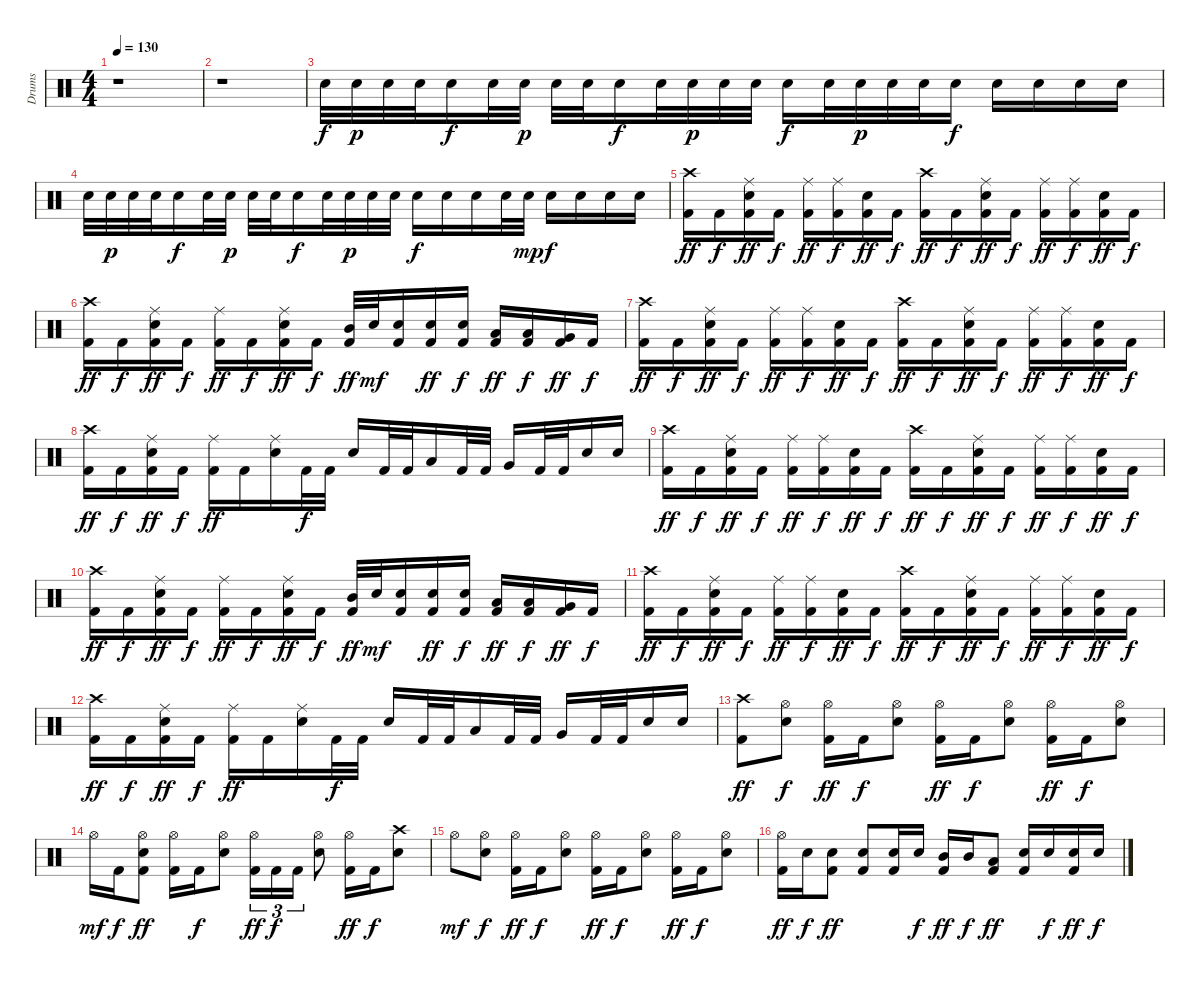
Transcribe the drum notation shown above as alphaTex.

\track ("Drums" "Drums") {instrument percussion}
\staff {score}
\articulation defaults
\ts (4 4)
\tempo 130
\clef neutral
\ks c
r.1{dy f} |
r.1 |
"Electric Snare (hit)".32 "Electric Snare (hit)".32{dy p} "Electric Snare (hit)".32 "Electric Snare (hit)".32 "Electric Snare (hit)".16{dy f} "Electric Snare (hit)".32 "Electric Snare (hit)".32{dy p} "Electric Snare (hit)".32 "Electric Snare (hit)".32 "Electric Snare (hit)".16{dy f} "Electric Snare (hit)".32 "Electric Snare (hit)".32{dy p} "Electric Snare (hit)".32 "Electric Snare (hit)".32 "Electric Snare (hit)".16{dy f} "Electric Snare (hit)".32 "Electric Snare (hit)".32{dy p} "Electric Snare (hit)".32 "Electric Snare (hit)".32 "Electric Snare (hit)".16{dy f} "Electric Snare (hit)".16 "Electric Snare (hit)".16 "Electric Snare (hit)".16 "Electric Snare (hit)".16 |
"Electric Snare (hit)".32 "Electric Snare (hit)".32{dy p} "Electric Snare (hit)".32 "Electric Snare (hit)".32 "Electric Snare (hit)".16{dy f} "Electric Snare (hit)".32 "Electric Snare (hit)".32{dy p} "Electric Snare (hit)".32 "Electric Snare (hit)".32 "Electric Snare (hit)".16{dy f} "Electric Snare (hit)".32 "Electric Snare (hit)".32{dy p} "Electric Snare (hit)".32 "Electric Snare (hit)".32 "Electric Snare (hit)".16{dy f} "Electric Snare (hit)".16 "Electric Snare (hit)".16 "Electric Snare (hit)".32 "Electric Snare (hit)".32{dy mp} "Electric Snare (hit)".16{dy f} "Electric Snare (hit)".16 "Electric Snare (hit)".16 "Electric Snare (hit)".16 |
("Crash high (hit)" "Kick (hit) 2").16{dy ff} "Kick (hit) 2".16{dy f} ("Ride (middle)" "Electric Snare (hit)" "Kick (hit) 2").16{dy ff} "Kick (hit) 2".16{dy f} ("Ride (middle)" "Kick (hit) 2").16{dy ff} ("Ride (middle)" "Kick (hit) 2").16{dy f} ("Electric Snare (hit)" "Kick (hit) 2").16{dy ff} "Kick (hit) 2".16{dy f} ("Crash high (hit)" "Kick (hit) 2").16{dy ff} "Kick (hit) 2".16{dy f} ("Ride (middle)" "Electric Snare (hit)" "Kick (hit) 2").16{dy ff} "Kick (hit) 2".16{dy f} ("Ride (middle)" "Kick (hit) 2").16{dy ff} ("Ride (middle)" "Kick (hit) 2").16{dy f} ("Electric Snare (hit)" "Kick (hit) 2").16{dy ff} "Kick (hit) 2".16{dy f} |
("Crash high (hit)" "Kick (hit) 2").16{dy ff} "Kick (hit) 2".16{dy f} ("Ride (middle)" "Electric Snare (hit)" "Kick (hit) 2").16{dy ff} "Kick (hit) 2".16{dy f} ("Ride (middle)" "Kick (hit) 2").16{dy ff} "Kick (hit) 2".16{dy f} ("Ride (middle)" "Electric Snare (hit)" "Kick (hit) 2").16{dy ff} "Kick (hit) 2".16{dy f} ("Mid Tom (hit)" "Kick (hit) 2").32{dy ff} "Electric Snare (hit)".32{dy mf} ("Electric Snare (hit)" "Kick (hit) 2").16 ("Electric Snare (hit)" "Kick (hit) 2").16{dy ff} ("Electric Snare (hit)" "Kick (hit) 2").16{dy f} ("Low Tom (hit)" "Kick (hit) 2").16{dy ff} ("Low Tom (hit)" "Kick (hit) 2").16{dy f} ("Very Low Tom (hit)" "Kick (hit) 2").16{dy ff} "Kick (hit) 2".16{dy f} |
("Crash high (hit)" "Kick (hit) 2").16{dy ff} "Kick (hit) 2".16{dy f} ("Ride (middle)" "Electric Snare (hit)" "Kick (hit) 2").16{dy ff} "Kick (hit) 2".16{dy f} ("Ride (middle)" "Kick (hit) 2").16{dy ff} ("Ride (middle)" "Kick (hit) 2").16{dy f} ("Electric Snare (hit)" "Kick (hit) 2").16{dy ff} "Kick (hit) 2".16{dy f} ("Crash high (hit)" "Kick (hit) 2").16{dy ff} "Kick (hit) 2".16{dy f} ("Ride (middle)" "Electric Snare (hit)" "Kick (hit) 2").16{dy ff} "Kick (hit) 2".16{dy f} ("Ride (middle)" "Kick (hit) 2").16{dy ff} ("Ride (middle)" "Kick (hit) 2").16{dy f} ("Electric Snare (hit)" "Kick (hit) 2").16{dy ff} "Kick (hit) 2".16{dy f} |
("Crash high (hit)" "Kick (hit) 2").16{dy ff} "Kick (hit) 2".16{dy f} ("Ride (middle)" "Electric Snare (hit)" "Kick (hit) 2").16{dy ff} "Kick (hit) 2".16{dy f} ("Ride (middle)" "Kick (hit) 2").16{dy ff} "Kick (hit) 2".16 ("Ride (middle)" "Electric Snare (hit)").16 "Kick (hit) 2".32{dy f} "Kick (hit) 2".32 "Electric Snare (hit)".16 "Kick (hit) 2".32 "Kick (hit) 2".32 "Low Tom (hit)".16 "Kick (hit) 2".32 "Kick (hit) 2".32 "Very Low Tom (hit)".16 "Kick (hit) 2".32 "Kick (hit) 2".32 "Electric Snare (hit)".16 "Electric Snare (hit)".16 |
("Crash high (hit)" "Kick (hit) 2").16{dy ff} "Kick (hit) 2".16{dy f} ("Ride (middle)" "Electric Snare (hit)" "Kick (hit) 2").16{dy ff} "Kick (hit) 2".16{dy f} ("Ride (middle)" "Kick (hit) 2").16{dy ff} ("Ride (middle)" "Kick (hit) 2").16{dy f} ("Electric Snare (hit)" "Kick (hit) 2").16{dy ff} "Kick (hit) 2".16{dy f} ("Crash high (hit)" "Kick (hit) 2").16{dy ff} "Kick (hit) 2".16{dy f} ("Ride (middle)" "Electric Snare (hit)" "Kick (hit) 2").16{dy ff} "Kick (hit) 2".16{dy f} ("Ride (middle)" "Kick (hit) 2").16{dy ff} ("Ride (middle)" "Kick (hit) 2").16{dy f} ("Electric Snare (hit)" "Kick (hit) 2").16{dy ff} "Kick (hit) 2".16{dy f} |
("Crash high (hit)" "Kick (hit) 2").16{dy ff} "Kick (hit) 2".16{dy f} ("Ride (middle)" "Electric Snare (hit)" "Kick (hit) 2").16{dy ff} "Kick (hit) 2".16{dy f} ("Ride (middle)" "Kick (hit) 2").16{dy ff} "Kick (hit) 2".16{dy f} ("Ride (middle)" "Electric Snare (hit)" "Kick (hit) 2").16{dy ff} "Kick (hit) 2".16{dy f} ("Mid Tom (hit)" "Kick (hit) 2").32{dy ff} "Electric Snare (hit)".32{dy mf} ("Electric Snare (hit)" "Kick (hit) 2").16 ("Electric Snare (hit)" "Kick (hit) 2").16{dy ff} ("Electric Snare (hit)" "Kick (hit) 2").16{dy f} ("Low Tom (hit)" "Kick (hit) 2").16{dy ff} ("Low Tom (hit)" "Kick (hit) 2").16{dy f} ("Very Low Tom (hit)" "Kick (hit) 2").16{dy ff} "Kick (hit) 2".16{dy f} |
("Crash high (hit)" "Kick (hit) 2").16{dy ff} "Kick (hit) 2".16{dy f} ("Ride (middle)" "Electric Snare (hit)" "Kick (hit) 2").16{dy ff} "Kick (hit) 2".16{dy f} ("Ride (middle)" "Kick (hit) 2").16{dy ff} ("Ride (middle)" "Kick (hit) 2").16{dy f} ("Electric Snare (hit)" "Kick (hit) 2").16{dy ff} "Kick (hit) 2".16{dy f} ("Crash high (hit)" "Kick (hit) 2").16{dy ff} "Kick (hit) 2".16{dy f} ("Ride (middle)" "Electric Snare (hit)" "Kick (hit) 2").16{dy ff} "Kick (hit) 2".16{dy f} ("Ride (middle)" "Kick (hit) 2").16{dy ff} ("Ride (middle)" "Kick (hit) 2").16{dy f} ("Electric Snare (hit)" "Kick (hit) 2").16{dy ff} "Kick (hit) 2".16{dy f} |
("Crash high (hit)" "Kick (hit) 2").16{dy ff} "Kick (hit) 2".16{dy f} ("Ride (middle)" "Electric Snare (hit)" "Kick (hit) 2").16{dy ff} "Kick (hit) 2".16{dy f} ("Ride (middle)" "Kick (hit) 2").16{dy ff} "Kick (hit) 2".16 ("Ride (middle)" "Electric Snare (hit)").16 "Kick (hit) 2".32{dy f} "Kick (hit) 2".32 "Electric Snare (hit)".16 "Kick (hit) 2".32 "Kick (hit) 2".32 "Low Tom (hit)".16 "Kick (hit) 2".32 "Kick (hit) 2".32 "Very Low Tom (hit)".16 "Kick (hit) 2".32 "Kick (hit) 2".32 "Electric Snare (hit)".16 "Electric Snare (hit)".16 |
("Crash high (hit)" "Kick (hit) 2").8{dy ff} ("Hi-Hat (open)" "Electric Snare (hit)").8{dy f} ("Hi-Hat (open)" "Kick (hit) 2").16{dy ff} "Kick (hit) 2".16{dy f} ("Hi-Hat (open)" "Electric Snare (hit)").8 ("Hi-Hat (open)" "Kick (hit) 2").16{dy ff} "Kick (hit) 2".16{dy f} ("Hi-Hat (open)" "Electric Snare (hit)").8 ("Hi-Hat (open)" "Kick (hit) 2").16{dy ff} "Kick (hit) 2".16{dy f} ("Hi-Hat (open)" "Electric Snare (hit)").8 |
"Hi-Hat (open)".16{dy mf} "Kick (hit) 2".16{dy f} ("Hi-Hat (open)" "Electric Snare (hit)" "Kick (hit) 2").8{dy ff} ("Hi-Hat (open)" "Kick (hit) 2").16 "Kick (hit) 2".16{dy f} ("Hi-Hat (open)" "Electric Snare (hit)").8 ("Hi-Hat (open)" "Kick (hit) 2").16{tu (3 2) dy ff} "Kick (hit) 2".16{tu (3 2) dy f} "Kick (hit) 2".16{tu (3 2)} ("Hi-Hat (open)" "Electric Snare (hit)").8 ("Hi-Hat (open)" "Kick (hit) 2").16{dy ff} "Kick (hit) 2".16{dy f} ("Crash high (hit)" "Electric Snare (hit)").8 |
"Hi-Hat (open)".8{dy mf} ("Hi-Hat (open)" "Electric Snare (hit)").8{dy f} ("Hi-Hat (open)" "Kick (hit) 2").16{dy ff} "Kick (hit) 2".16{dy f} ("Hi-Hat (open)" "Electric Snare (hit)").8 ("Hi-Hat (open)" "Kick (hit) 2").16{dy ff} "Kick (hit) 2".16{dy f} ("Hi-Hat (open)" "Electric Snare (hit)").8 ("Hi-Hat (open)" "Kick (hit) 2").16{dy ff} "Kick (hit) 2".16{dy f} ("Hi-Hat (open)" "Electric Snare (hit)").8 |
("Hi-Hat (open)" "Kick (hit) 2").16{dy ff} "Electric Snare (hit)".16{dy f} ("Electric Snare (hit)" "Kick (hit) 2").8{dy ff} ("Electric Snare (hit)" "Kick (hit) 2").8 ("Electric Snare (hit)" "Kick (hit) 2").16 "Electric Snare (hit)".16{dy f} ("Mid Tom (hit)" "Kick (hit) 2").16{dy ff} "Mid Tom (hit)".16{dy f} ("Low Tom (hit)" "Kick (hit) 2").8{dy ff} ("Electric Snare (hit)" "Kick (hit) 2").16 "Electric Snare (hit)".16{dy f} ("Electric Snare (hit)" "Kick (hit) 2").16{dy ff} "Electric Snare (hit)".16{dy f}
